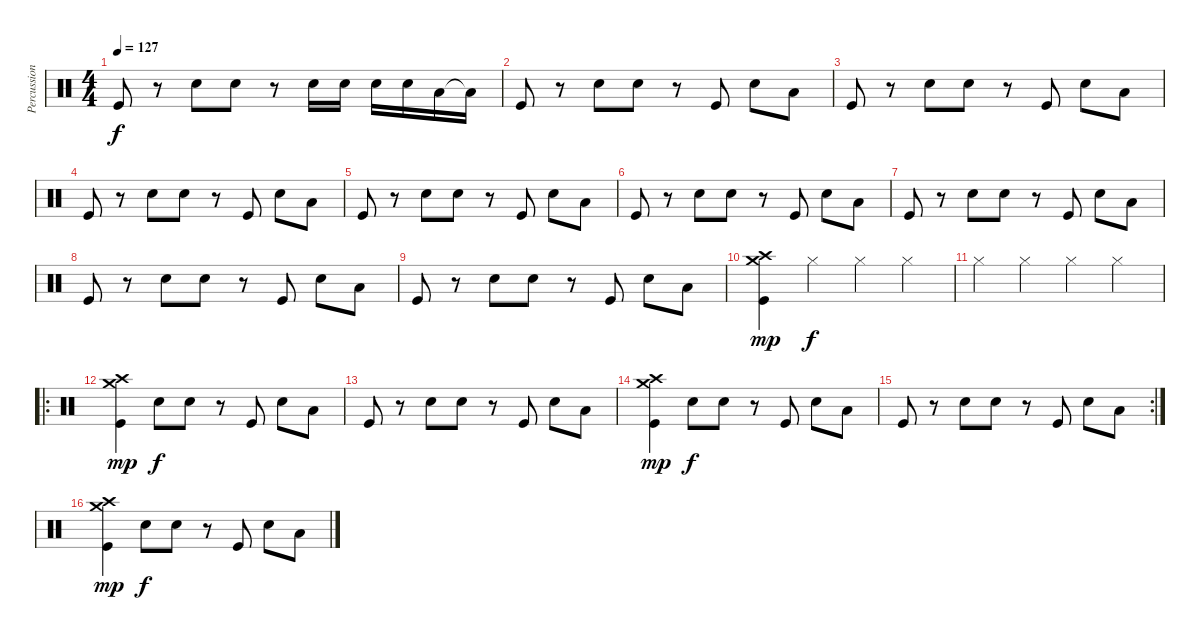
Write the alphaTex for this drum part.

\track ("Percussion" "Percussion") {instrument percussion}
\staff {score}
\articulation defaults
\ts (4 4)
\tempo 127
\clef neutral
\ks c "Kick (hit)".8{dy f}
r.8 "Snare (hit) 2".8 "Snare (hit) 2".8 r.8 "Snare (hit) 2".16 "Snare (hit) 2".16 "Snare (hit) 2".16 "Snare (hit) 2".16 "Low Floor Tom (hit)".16 "Low Floor Tom (hit)"{t}.16 |
"Kick (hit)".8 r.8 "Snare (hit) 2".8 "Snare (hit) 2".8 r.8 "Kick (hit)".8 "Snare (hit) 2".8 "Low Floor Tom (hit)".8 |
"Kick (hit)".8 r.8 "Snare (hit) 2".8 "Snare (hit) 2".8 r.8 "Kick (hit)".8 "Snare (hit) 2".8 "Low Floor Tom (hit)".8 |
"Kick (hit)".8 r.8 "Snare (hit) 2".8 "Snare (hit) 2".8 r.8 "Kick (hit)".8 "Snare (hit) 2".8 "Low Floor Tom (hit)".8 |
"Kick (hit)".8 r.8 "Snare (hit) 2".8 "Snare (hit) 2".8 r.8 "Kick (hit)".8 "Snare (hit) 2".8 "Low Floor Tom (hit)".8 |
"Kick (hit)".8 r.8 "Snare (hit) 2".8 "Snare (hit) 2".8 r.8 "Kick (hit)".8 "Snare (hit) 2".8 "Low Floor Tom (hit)".8 |
"Kick (hit)".8 r.8 "Snare (hit) 2".8 "Snare (hit) 2".8 r.8 "Kick (hit)".8 "Snare (hit) 2".8 "Low Floor Tom (hit)".8 |
"Kick (hit)".8 r.8 "Snare (hit) 2".8 "Snare (hit) 2".8 r.8 "Kick (hit)".8 "Snare (hit) 2".8 "Low Floor Tom (hit)".8 |
"Kick (hit)".8 r.8 "Snare (hit) 2".8 "Snare (hit) 2".8 r.8 "Kick (hit)".8 "Snare (hit) 2".8 "Low Floor Tom (hit)".8 |
("Crash medium (hit)" "Crash high (hit)" "Kick (hit)").4{dy mp} "Hi-Hat (closed)".4{dy f} "Hi-Hat (closed)".4 "Hi-Hat (closed)".4 |
"Hi-Hat (closed)".4 "Hi-Hat (closed)".4 "Hi-Hat (closed)".4 "Hi-Hat (closed)".4 |
\ro
("Crash medium (hit)" "Crash high (hit)" "Kick (hit)").4{dy mp} "Snare (hit) 2".8{dy f} "Snare (hit) 2".8 r.8 "Kick (hit)".8 "Snare (hit) 2".8 "Low Floor Tom (hit)".8 |
"Kick (hit)".8 r.8 "Snare (hit) 2".8 "Snare (hit) 2".8 r.8 "Kick (hit)".8 "Snare (hit) 2".8 "Low Floor Tom (hit)".8 |
("Crash medium (hit)" "Crash high (hit)" "Kick (hit)").4{dy mp} "Snare (hit) 2".8{dy f} "Snare (hit) 2".8 r.8 "Kick (hit)".8 "Snare (hit) 2".8 "Low Floor Tom (hit)".8 |
\rc 2 "Kick (hit)".8
r.8 "Snare (hit) 2".8 "Snare (hit) 2".8 r.8 "Kick (hit)".8 "Snare (hit) 2".8 "Low Floor Tom (hit)".8 |
("Crash medium (hit)" "Crash high (hit)" "Kick (hit)").4{dy mp} "Snare (hit) 2".8{dy f} "Snare (hit) 2".8 r.8 "Kick (hit)".8 "Snare (hit) 2".8 "Low Floor Tom (hit)".8
